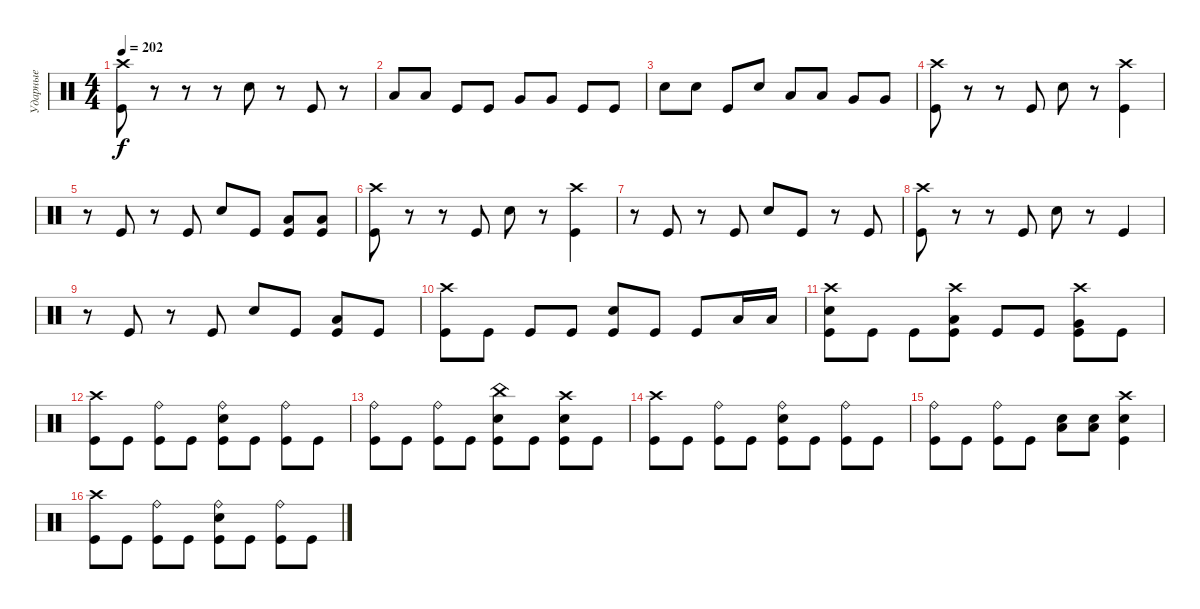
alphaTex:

\track ("Ударные" "Ударные") {instrument percussion}
\staff {score}
\articulation defaults
\ts (4 4)
\tempo 202
\clef neutral
\ks c
("Crash high (hit)" "Kick (hit)").8{dy f} r.8 r.8 r.8 "Electric Snare (hit)".8 r.8 "Kick (hit)".8 r.8 |
"Low Tom (hit)".8 "Low Tom (hit)".8 "Kick (hit)".8 "Kick (hit)".8 "Very Low Tom (hit)".8 "Very Low Tom (hit)".8 "Kick (hit)".8 "Kick (hit)".8 |
"Electric Snare (hit)".8 "Electric Snare (hit)".8 "Kick (hit)".8 "Electric Snare (hit)".8 "Low Tom (hit)".8 "Low Tom (hit)".8 "Very Low Tom (hit)".8 "Very Low Tom (hit)".8 |
("Crash high (hit)" "Kick (hit)").8 r.8 r.8 "Kick (hit)".8 "Electric Snare (hit)".8 r.8 ("Crash high (hit)" "Kick (hit)").4 |
r.8 "Kick (hit)".8 r.8 "Kick (hit)".8 "Electric Snare (hit)".8 "Kick (hit)".8 ("Low Tom (hit)" "Kick (hit)").8 ("Low Tom (hit)" "Kick (hit)").8 |
("Crash high (hit)" "Kick (hit)").8 r.8 r.8 "Kick (hit)".8 "Electric Snare (hit)".8 r.8 ("Crash high (hit)" "Kick (hit)").4 |
r.8 "Kick (hit)".8 r.8 "Kick (hit)".8 "Electric Snare (hit)".8 "Kick (hit)".8 r.8 "Kick (hit)".8 |
("Crash high (hit)" "Kick (hit)").8 r.8 r.8 "Kick (hit)".8 "Electric Snare (hit)".8 r.8 "Kick (hit)".4 |
r.8 "Kick (hit)".8 r.8 "Kick (hit)".8 "Electric Snare (hit)".8 "Kick (hit)".8 ("Low Tom (hit)" "Kick (hit)").8 "Kick (hit)".8 |
("Crash high (hit)" "Kick (hit)").8 "Kick (hit)".8 "Kick (hit)".8 "Kick (hit)".8 ("Electric Snare (hit)" "Kick (hit)").8 "Kick (hit)".8 "Kick (hit)".8 "Low Tom (hit)".16 "Low Tom (hit)".16 |
("Crash high (hit)" "Electric Snare (hit)" "Kick (hit)").8 "Kick (hit)".8 "Kick (hit)".8 ("Crash high (hit)" "Low Tom (hit)" "Kick (hit)").8 "Kick (hit)".8 "Kick (hit)".8 ("Crash high (hit)" "Very Low Tom (hit)" "Kick (hit)").8 "Kick (hit)".8 |
("Crash high (hit)" "Kick (hit)").8 "Kick (hit)".8 ("Ride (bell)" "Kick (hit)").8 "Kick (hit)".8 ("Ride (bell)" "Electric Snare (hit)" "Kick (hit)").8 "Kick (hit)".8 ("Ride (bell)" "Kick (hit)").8 "Kick (hit)".8 |
("Ride (bell)" "Kick (hit)").8 "Kick (hit)".8 ("Ride (bell)" "Kick (hit)").8 "Kick (hit)".8 ("China (hit)" "Electric Snare (hit)" "Kick (hit)").8 "Kick (hit)".8 ("Crash high (hit)" "Electric Snare (hit)" "Kick (hit)").8 "Kick (hit)".8 |
("Crash high (hit)" "Kick (hit)").8 "Kick (hit)".8 ("Ride (bell)" "Kick (hit)").8 "Kick (hit)".8 ("Ride (bell)" "Electric Snare (hit)" "Kick (hit)").8 "Kick (hit)".8 ("Ride (bell)" "Kick (hit)").8 "Kick (hit)".8 |
("Ride (bell)" "Kick (hit)").8 "Kick (hit)".8 ("Ride (bell)" "Kick (hit)").8 "Kick (hit)".8 ("Low Tom (hit)" "Electric Snare (hit)").8 ("Low Tom (hit)" "Electric Snare (hit)").8 ("Crash high (hit)" "Electric Snare (hit)" "Kick (hit)").4 |
("Crash high (hit)" "Kick (hit)").8 "Kick (hit)".8 ("Ride (bell)" "Kick (hit)").8 "Kick (hit)".8 ("Ride (bell)" "Electric Snare (hit)" "Kick (hit)").8 "Kick (hit)".8 ("Ride (bell)" "Kick (hit)").8 "Kick (hit)".8
